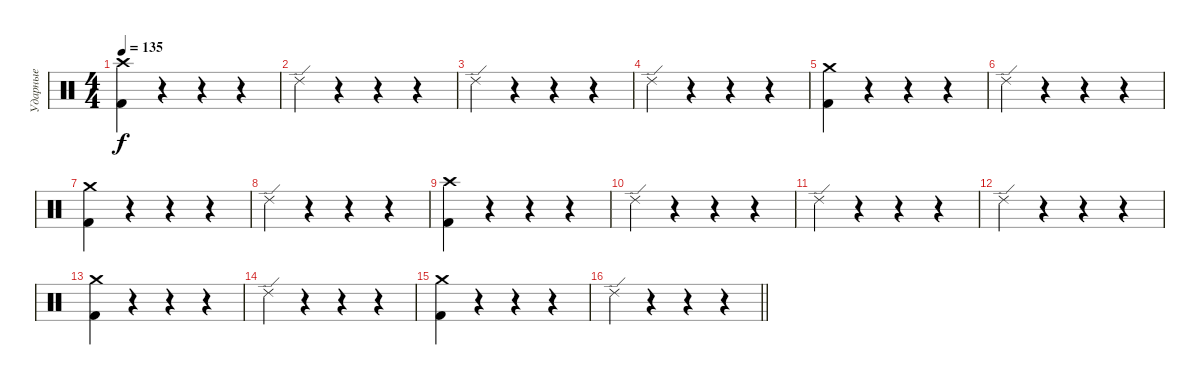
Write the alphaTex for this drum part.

\track ("Ударные" "Ударные") {instrument percussion}
\staff {score}
\articulation defaults
\ts (4 4)
\tempo 135
\clef neutral
\ks c
("Crash high (hit)" "Kick (hit) 2").4{dy f} r.4 r.4 r.4 |
"Ride (edge) 2".4 r.4 r.4 r.4 |
"Ride (edge) 2".4 r.4 r.4 r.4 |
"Ride (edge) 2".4 r.4 r.4 r.4 |
("Crash medium (hit)" "Kick (hit) 2").4 r.4 r.4 r.4 |
"Ride (edge) 2".4 r.4 r.4 r.4 |
("Crash medium (hit)" "Kick (hit) 2").4 r.4 r.4 r.4 |
"Ride (edge) 2".4 r.4 r.4 r.4 |
("Crash high (hit)" "Kick (hit) 2").4 r.4 r.4 r.4 |
"Ride (edge) 2".4 r.4 r.4 r.4 |
"Ride (edge) 2".4 r.4 r.4 r.4 |
"Ride (edge) 2".4 r.4 r.4 r.4 |
("Crash medium (hit)" "Kick (hit) 2").4 r.4 r.4 r.4 |
"Ride (edge) 2".4 r.4 r.4 r.4 |
("Crash medium (hit)" "Kick (hit) 2").4 r.4 r.4 r.4 |
\barLineRight lightlight "Ride (edge) 2".4
r.4 r.4 r.4
